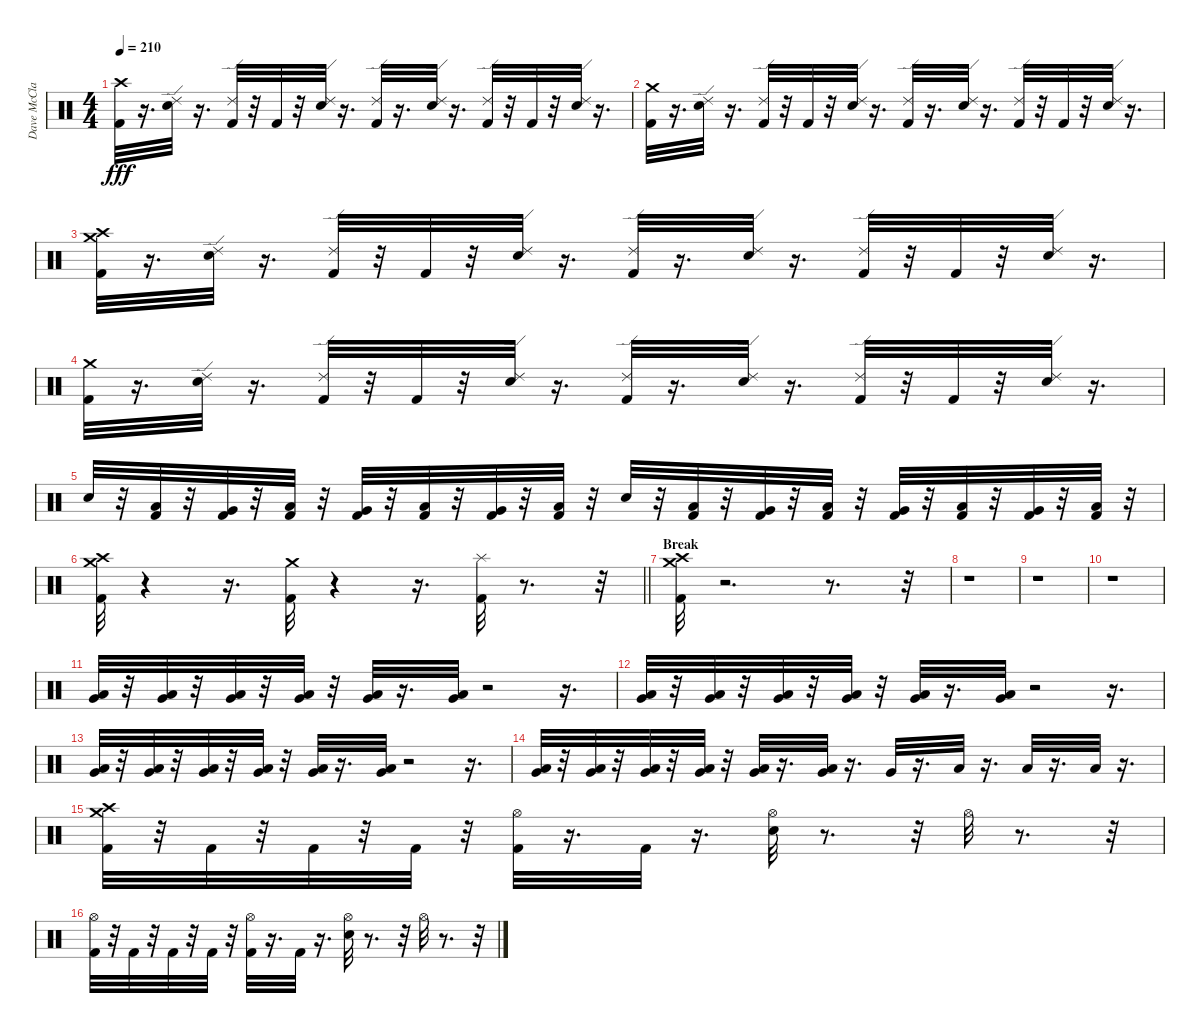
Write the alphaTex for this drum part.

\track ("Dave McClain" "Dave McCla") {instrument percussion}
\staff {score}
\articulation defaults
\ts (4 4)
\tempo 210
\clef neutral
\ks c
("Crash high (hit)" "Kick (hit) 2").32{dy fff} r.16{d} ("Ride (edge) 2" "Snare (hit) 2").32 r.16{d} ("Ride (edge) 2" "Kick (hit) 2").32 r.32 "Kick (hit) 2".32 r.32 ("Ride (edge) 2" "Snare (hit) 2").32 r.16{d} ("Ride (edge) 2" "Kick (hit) 2").32 r.16{d} ("Ride (edge) 2" "Snare (hit) 2").32 r.16{d} ("Ride (edge) 2" "Kick (hit) 2").32 r.32 "Kick (hit) 2".32 r.32 ("Ride (edge) 2" "Snare (hit) 2").32 r.16{d} |
("Crash medium (hit)" "Kick (hit) 2").32 r.16{d} ("Ride (edge) 2" "Snare (hit) 2").32 r.16{d} ("Ride (edge) 2" "Kick (hit) 2").32 r.32 "Kick (hit) 2".32 r.32 ("Ride (edge) 2" "Snare (hit) 2").32 r.16{d} ("Ride (edge) 2" "Kick (hit) 2").32 r.16{d} ("Ride (edge) 2" "Snare (hit) 2").32 r.16{d} ("Ride (edge) 2" "Kick (hit) 2").32 r.32 "Kick (hit) 2".32 r.32 ("Ride (edge) 2" "Snare (hit) 2").32 r.16{d} |
("Kick (hit) 2" "Crash high (hit)" "Crash medium (hit)").32 r.16{d} ("Snare (hit) 2" "Ride (edge) 2").32 r.16{d} ("Kick (hit) 2" "Ride (edge) 2").32 r.32 "Kick (hit) 2".32 r.32 ("Snare (hit) 2" "Ride (edge) 2").32 r.16{d} ("Kick (hit) 2" "Ride (edge) 2").32 r.16{d} ("Snare (hit) 2" "Ride (edge) 2").32 r.16{d} ("Kick (hit) 2" "Ride (edge) 2").32 r.32 "Kick (hit) 2".32 r.32 ("Snare (hit) 2" "Ride (edge) 2").32 r.16{d} |
("Kick (hit) 2" "Crash medium (hit)").32 r.16{d} ("Snare (hit) 2" "Ride (edge) 2").32 r.16{d} ("Kick (hit) 2" "Ride (edge) 2").32 r.32 "Kick (hit) 2".32 r.32 ("Snare (hit) 2" "Ride (edge) 2").32 r.16{d} ("Kick (hit) 2" "Ride (edge) 2").32 r.16{d} ("Snare (hit) 2" "Ride (edge) 2").32 r.16{d} ("Kick (hit) 2" "Ride (edge) 2").32 r.32 "Kick (hit) 2".32 r.32 ("Snare (hit) 2" "Ride (edge) 2").32 r.16{d} |
"Snare (hit) 2".32 r.32 ("Kick (hit) 2" "Low Tom (hit)").32 r.32 ("Kick (hit) 2" "Very Low Tom (hit)").32 r.32 ("Kick (hit) 2" "Low Tom (hit)").32 r.32 ("Kick (hit) 2" "Very Low Tom (hit)").32 r.32 ("Kick (hit) 2" "Low Tom (hit)").32 r.32 ("Kick (hit) 2" "Very Low Tom (hit)").32 r.32 ("Kick (hit) 2" "Low Tom (hit)").32 r.32 "Snare (hit) 2".32 r.32 ("Kick (hit) 2" "Low Tom (hit)").32 r.32 ("Kick (hit) 2" "Very Low Tom (hit)").32 r.32 ("Kick (hit) 2" "Low Tom (hit)").32 r.32 ("Kick (hit) 2" "Very Low Tom (hit)").32 r.32 ("Kick (hit) 2" "Low Tom (hit)").32 r.32 ("Kick (hit) 2" "Very Low Tom (hit)").32 r.32 ("Kick (hit) 2" "Low Tom (hit)").32 r.32 |
\barLineRight lightlight
("Kick (hit) 2" "Crash high (hit)" "Crash medium (hit)").32 r.4 r.16{d} ("Kick (hit) 2" "Crash medium (hit)").32 r.4 r.16{d} ("Kick (hit) 2" "Splash (hit)").32 r.8{d} r.32 |
\section ("" "Break")
("Crash medium (hit)" "Crash high (hit)" "Kick (hit) 2").32 r.2{d} r.8{d} r.32 |
r.1 |
r.1 |
r.1 |
("Very Low Tom (hit)" "Low Tom (hit)").32 r.32 ("Very Low Tom (hit)" "Low Tom (hit)").32 r.32 ("Very Low Tom (hit)" "Low Tom (hit)").32 r.32 ("Very Low Tom (hit)" "Low Tom (hit)").32 r.32 ("Very Low Tom (hit)" "Low Tom (hit)").32 r.16{d} ("Very Low Tom (hit)" "Low Tom (hit)").32 r.2 r.16{d} |
("Very Low Tom (hit)" "Low Tom (hit)").32 r.32 ("Very Low Tom (hit)" "Low Tom (hit)").32 r.32 ("Very Low Tom (hit)" "Low Tom (hit)").32 r.32 ("Very Low Tom (hit)" "Low Tom (hit)").32 r.32 ("Very Low Tom (hit)" "Low Tom (hit)").32 r.16{d} ("Very Low Tom (hit)" "Low Tom (hit)").32 r.2 r.16{d} |
("Very Low Tom (hit)" "Low Tom (hit)").32 r.32 ("Very Low Tom (hit)" "Low Tom (hit)").32 r.32 ("Very Low Tom (hit)" "Low Tom (hit)").32 r.32 ("Very Low Tom (hit)" "Low Tom (hit)").32 r.32 ("Very Low Tom (hit)" "Low Tom (hit)").32 r.16{d} ("Very Low Tom (hit)" "Low Tom (hit)").32 r.2 r.16{d} |
("Very Low Tom (hit)" "Low Tom (hit)").32 r.32 ("Very Low Tom (hit)" "Low Tom (hit)").32 r.32 ("Very Low Tom (hit)" "Low Tom (hit)").32 r.32 ("Very Low Tom (hit)" "Low Tom (hit)").32 r.32 ("Very Low Tom (hit)" "Low Tom (hit)").32 r.16{d} ("Very Low Tom (hit)" "Low Tom (hit)").32 r.16{d} "Very Low Tom (hit)".32 r.16{d} "Low Floor Tom (hit)".32 r.16{d} "Low Floor Tom (hit)".32 r.16{d} "Low Floor Tom (hit)".32 r.16{d} |
("Crash medium (hit)" "Crash high (hit)" "Kick (hit) 2").32 r.32 "Kick (hit) 2".32 r.32 "Kick (hit) 2".32 r.32 "Kick (hit) 2".32 r.32 ("Hi-Hat (open)" "Kick (hit) 2").32 r.16{d} "Kick (hit) 2".32 r.16{d} ("Hi-Hat (open)" "Snare (hit) 2").32 r.8{d} r.32 "Hi-Hat (open)".32 r.8{d} r.32 |
("Kick (hit) 2" "Hi-Hat (open)").32 r.32 "Kick (hit) 2".32 r.32 "Kick (hit) 2".32 r.32 "Kick (hit) 2".32 r.32 ("Kick (hit) 2" "Hi-Hat (open)").32 r.16{d} "Kick (hit) 2".32 r.16{d} ("Snare (hit) 2" "Hi-Hat (open)").32 r.8{d} r.32 "Hi-Hat (open)".32 r.8{d} r.32
